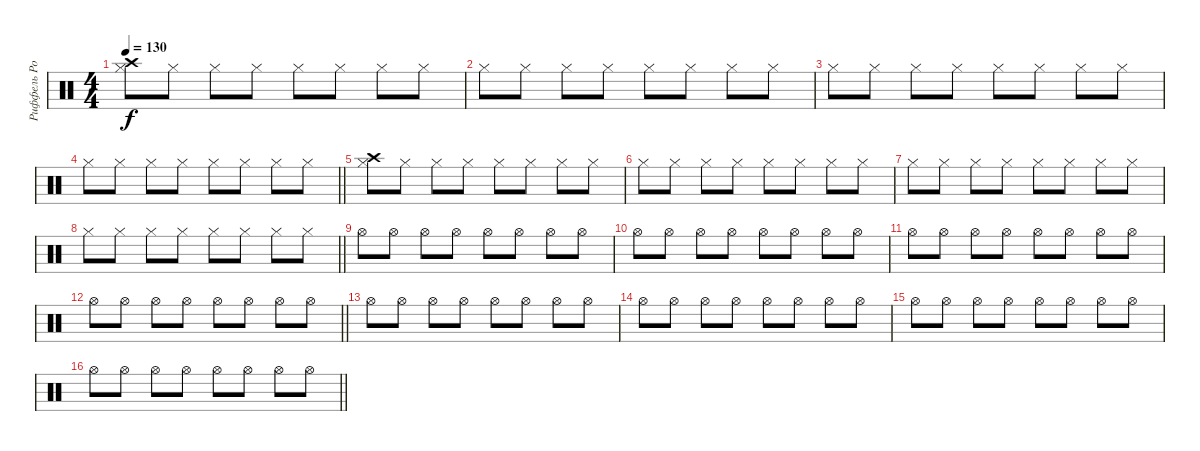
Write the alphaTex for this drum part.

\track ("Риффель Роман(хэты)" "Риффель Ро") {instrument percussion}
\staff {score}
\articulation defaults
\ts (4 4)
\tempo 130
\clef neutral
\ks c
("Hi-Hat (closed)" "Crash high (hit)").8{dy f} "Hi-Hat (closed)".8 "Hi-Hat (closed)".8 "Hi-Hat (closed)".8 "Hi-Hat (closed)".8 "Hi-Hat (closed)".8 "Hi-Hat (closed)".8 "Hi-Hat (closed)".8 |
"Hi-Hat (closed)".8 "Hi-Hat (closed)".8 "Hi-Hat (closed)".8 "Hi-Hat (closed)".8 "Hi-Hat (closed)".8 "Hi-Hat (closed)".8 "Hi-Hat (closed)".8 "Hi-Hat (closed)".8 |
"Hi-Hat (closed)".8 "Hi-Hat (closed)".8 "Hi-Hat (closed)".8 "Hi-Hat (closed)".8 "Hi-Hat (closed)".8 "Hi-Hat (closed)".8 "Hi-Hat (closed)".8 "Hi-Hat (closed)".8 |
\barLineRight lightlight "Hi-Hat (closed)".8 "Hi-Hat (closed)".8 "Hi-Hat (closed)".8 "Hi-Hat (closed)".8 "Hi-Hat (closed)".8 "Hi-Hat (closed)".8 "Hi-Hat (closed)".8 "Hi-Hat (closed)".8
|
("Hi-Hat (closed)" "Crash high (hit)").8 "Hi-Hat (closed)".8 "Hi-Hat (closed)".8 "Hi-Hat (closed)".8 "Hi-Hat (closed)".8 "Hi-Hat (closed)".8 "Hi-Hat (closed)".8 "Hi-Hat (closed)".8 |
"Hi-Hat (closed)".8 "Hi-Hat (closed)".8 "Hi-Hat (closed)".8 "Hi-Hat (closed)".8 "Hi-Hat (closed)".8 "Hi-Hat (closed)".8 "Hi-Hat (closed)".8 "Hi-Hat (closed)".8 |
"Hi-Hat (closed)".8 "Hi-Hat (closed)".8 "Hi-Hat (closed)".8 "Hi-Hat (closed)".8 "Hi-Hat (closed)".8 "Hi-Hat (closed)".8 "Hi-Hat (closed)".8 "Hi-Hat (closed)".8 |
\barLineRight lightlight "Hi-Hat (closed)".8 "Hi-Hat (closed)".8 "Hi-Hat (closed)".8 "Hi-Hat (closed)".8 "Hi-Hat (closed)".8 "Hi-Hat (closed)".8 "Hi-Hat (closed)".8 "Hi-Hat (closed)".8
|
"Hi-Hat (open)".8 "Hi-Hat (open)".8 "Hi-Hat (open)".8 "Hi-Hat (open)".8 "Hi-Hat (open)".8 "Hi-Hat (open)".8 "Hi-Hat (open)".8 "Hi-Hat (open)".8 |
"Hi-Hat (open)".8 "Hi-Hat (open)".8 "Hi-Hat (open)".8 "Hi-Hat (open)".8 "Hi-Hat (open)".8 "Hi-Hat (open)".8 "Hi-Hat (open)".8 "Hi-Hat (open)".8 |
"Hi-Hat (open)".8 "Hi-Hat (open)".8 "Hi-Hat (open)".8 "Hi-Hat (open)".8 "Hi-Hat (open)".8 "Hi-Hat (open)".8 "Hi-Hat (open)".8 "Hi-Hat (open)".8 |
\barLineRight lightlight "Hi-Hat (open)".8 "Hi-Hat (open)".8 "Hi-Hat (open)".8 "Hi-Hat (open)".8 "Hi-Hat (open)".8 "Hi-Hat (open)".8 "Hi-Hat (open)".8 "Hi-Hat (open)".8
|
"Hi-Hat (open)".8 "Hi-Hat (open)".8 "Hi-Hat (open)".8 "Hi-Hat (open)".8 "Hi-Hat (open)".8 "Hi-Hat (open)".8 "Hi-Hat (open)".8 "Hi-Hat (open)".8 |
"Hi-Hat (open)".8 "Hi-Hat (open)".8 "Hi-Hat (open)".8 "Hi-Hat (open)".8 "Hi-Hat (open)".8 "Hi-Hat (open)".8 "Hi-Hat (open)".8 "Hi-Hat (open)".8 |
"Hi-Hat (open)".8 "Hi-Hat (open)".8 "Hi-Hat (open)".8 "Hi-Hat (open)".8 "Hi-Hat (open)".8 "Hi-Hat (open)".8 "Hi-Hat (open)".8 "Hi-Hat (open)".8 |
\barLineRight lightlight "Hi-Hat (open)".8 "Hi-Hat (open)".8 "Hi-Hat (open)".8 "Hi-Hat (open)".8 "Hi-Hat (open)".8 "Hi-Hat (open)".8 "Hi-Hat (open)".8 "Hi-Hat (open)".8
